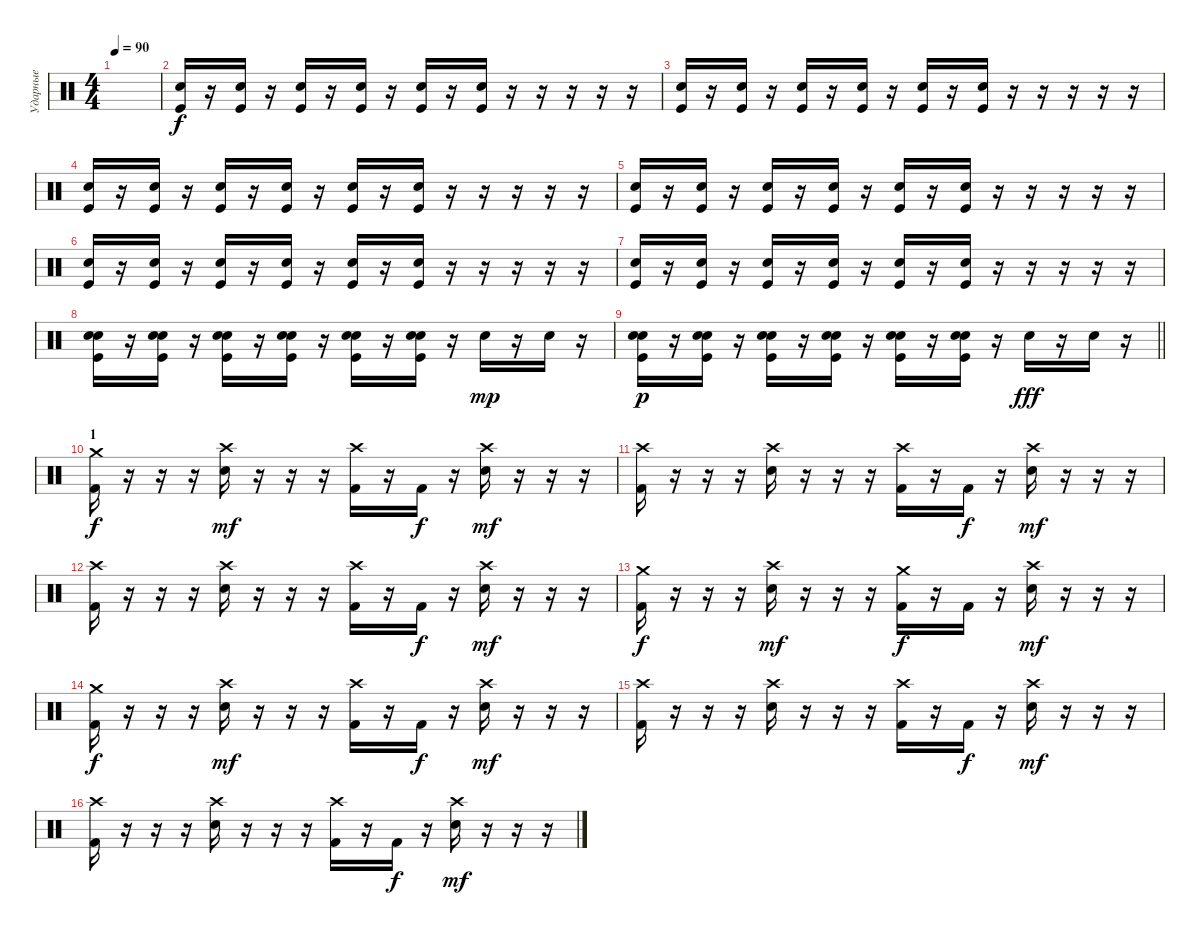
\track ("Ударные" "Ударные") {instrument percussion}
\staff {score}
\articulation defaults
\ts (4 4)
\tempo 90
\clef neutral
\ks c
|
("Hand Clap (hit)" "Kick (hit)").16 r.16 ("Hand Clap (hit)" "Kick (hit)").16 r.16 ("Hand Clap (hit)" "Kick (hit)").16 r.16 ("Hand Clap (hit)" "Kick (hit)").16 r.16 ("Hand Clap (hit)" "Kick (hit)").16 r.16 ("Hand Clap (hit)" "Kick (hit)").16 r.16 r.16 r.16 r.16 r.16 |
("Hand Clap (hit)" "Kick (hit)").16 r.16 ("Hand Clap (hit)" "Kick (hit)").16 r.16 ("Hand Clap (hit)" "Kick (hit)").16 r.16 ("Hand Clap (hit)" "Kick (hit)").16 r.16 ("Hand Clap (hit)" "Kick (hit)").16 r.16 ("Hand Clap (hit)" "Kick (hit)").16 r.16 r.16 r.16 r.16 r.16 |
("Hand Clap (hit)" "Kick (hit)").16 r.16 ("Hand Clap (hit)" "Kick (hit)").16 r.16 ("Hand Clap (hit)" "Kick (hit)").16 r.16 ("Hand Clap (hit)" "Kick (hit)").16 r.16 ("Hand Clap (hit)" "Kick (hit)").16 r.16 ("Hand Clap (hit)" "Kick (hit)").16 r.16 r.16 r.16 r.16 r.16 |
("Hand Clap (hit)" "Kick (hit)").16 r.16 ("Hand Clap (hit)" "Kick (hit)").16 r.16 ("Hand Clap (hit)" "Kick (hit)").16 r.16 ("Hand Clap (hit)" "Kick (hit)").16 r.16 ("Hand Clap (hit)" "Kick (hit)").16 r.16 ("Hand Clap (hit)" "Kick (hit)").16 r.16 r.16 r.16 r.16 r.16 |
("Hand Clap (hit)" "Kick (hit)").16 r.16 ("Hand Clap (hit)" "Kick (hit)").16 r.16 ("Hand Clap (hit)" "Kick (hit)").16 r.16 ("Hand Clap (hit)" "Kick (hit)").16 r.16 ("Hand Clap (hit)" "Kick (hit)").16 r.16 ("Hand Clap (hit)" "Kick (hit)").16 r.16 r.16 r.16 r.16 r.16 |
("Hand Clap (hit)" "Kick (hit)").16 r.16 ("Hand Clap (hit)" "Kick (hit)").16 r.16 ("Hand Clap (hit)" "Kick (hit)").16 r.16 ("Hand Clap (hit)" "Kick (hit)").16 r.16 ("Hand Clap (hit)" "Kick (hit)").16 r.16 ("Hand Clap (hit)" "Kick (hit)").16 r.16 r.16 r.16 r.16 r.16 |
("Electric Snare (hit)" "Hand Clap (hit)" "Kick (hit)").16 r.16 ("Electric Snare (hit)" "Hand Clap (hit)" "Kick (hit)").16 r.16 ("Electric Snare (hit)" "Hand Clap (hit)" "Kick (hit)").16 r.16 ("Electric Snare (hit)" "Hand Clap (hit)" "Kick (hit)").16 r.16 ("Electric Snare (hit)" "Hand Clap (hit)" "Kick (hit)").16 r.16 ("Electric Snare (hit)" "Hand Clap (hit)" "Kick (hit)").16 r.16 "Electric Snare (hit)".16{dy mp} r.16 "Electric Snare (hit)".16 r.16 |
\barLineRight lightlight
("Electric Snare (hit)" "Hand Clap (hit)" "Kick (hit)").16{dy p} r.16 ("Electric Snare (hit)" "Hand Clap (hit)" "Kick (hit)").16 r.16 ("Electric Snare (hit)" "Hand Clap (hit)" "Kick (hit)").16 r.16 ("Electric Snare (hit)" "Hand Clap (hit)" "Kick (hit)").16 r.16 ("Electric Snare (hit)" "Hand Clap (hit)" "Kick (hit)").16 r.16 ("Electric Snare (hit)" "Hand Clap (hit)" "Kick (hit)").16 r.16 "Electric Snare (hit)".16{dy fff} r.16 "Electric Snare (hit)".16 r.16 |
\section ("" "1")
("Crash medium (hit)" "Kick (hit) 2").16{dy f} r.16 r.16 r.16 ("Crash high (hit)" "Electric Snare (hit)").16{dy mf} r.16 r.16 r.16 ("Crash high (hit)" "Kick (hit) 2").16 r.16 "Kick (hit) 2".16{dy f} r.16 ("Crash high (hit)" "Electric Snare (hit)").16{dy mf} r.16 r.16 r.16 |
("Crash high (hit)" "Kick (hit) 2").16 r.16 r.16 r.16 ("Crash high (hit)" "Electric Snare (hit)").16 r.16 r.16 r.16 ("Crash high (hit)" "Kick (hit) 2").16 r.16 "Kick (hit) 2".16{dy f} r.16 ("Crash high (hit)" "Electric Snare (hit)").16{dy mf} r.16 r.16 r.16 |
("Crash high (hit)" "Kick (hit) 2").16 r.16 r.16 r.16 ("Crash high (hit)" "Electric Snare (hit)").16 r.16 r.16 r.16 ("Crash high (hit)" "Kick (hit) 2").16 r.16 "Kick (hit) 2".16{dy f} r.16 ("Crash high (hit)" "Electric Snare (hit)").16{dy mf} r.16 r.16 r.16 |
("Crash medium (hit)" "Kick (hit) 2").16{dy f} r.16 r.16 r.16 ("Crash high (hit)" "Electric Snare (hit)").16{dy mf} r.16 r.16 r.16 ("Crash medium (hit)" "Kick (hit) 2").16{dy f} r.16 "Kick (hit) 2".16 r.16 ("Crash high (hit)" "Electric Snare (hit)").16{dy mf} r.16 r.16 r.16 |
("Crash medium (hit)" "Kick (hit) 2").16{dy f} r.16 r.16 r.16 ("Crash high (hit)" "Electric Snare (hit)").16{dy mf} r.16 r.16 r.16 ("Crash high (hit)" "Kick (hit) 2").16 r.16 "Kick (hit) 2".16{dy f} r.16 ("Crash high (hit)" "Electric Snare (hit)").16{dy mf} r.16 r.16 r.16 |
("Crash high (hit)" "Kick (hit) 2").16 r.16 r.16 r.16 ("Crash high (hit)" "Electric Snare (hit)").16 r.16 r.16 r.16 ("Crash high (hit)" "Kick (hit) 2").16 r.16 "Kick (hit) 2".16{dy f} r.16 ("Crash high (hit)" "Electric Snare (hit)").16{dy mf} r.16 r.16 r.16 |
("Crash high (hit)" "Kick (hit) 2").16 r.16 r.16 r.16 ("Crash high (hit)" "Electric Snare (hit)").16 r.16 r.16 r.16 ("Crash high (hit)" "Kick (hit) 2").16 r.16 "Kick (hit) 2".16{dy f} r.16 ("Crash high (hit)" "Electric Snare (hit)").16{dy mf} r.16 r.16 r.16
